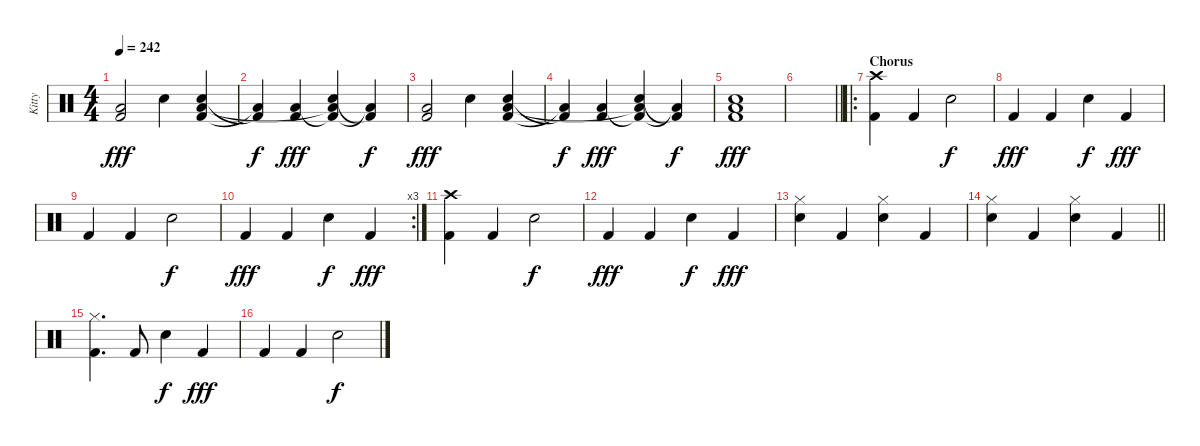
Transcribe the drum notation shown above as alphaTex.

\track ("Kitty" "Kitty") {instrument percussion}
\staff {score}
\articulation defaults
\ts (4 4)
\tempo 242
\clef neutral
\ks c
("Kick (hit) 2" "Low Floor Tom (hit)").2{dy fff} "Hand Clap (hit)".4 ("Hand Clap (hit)" "Kick (hit) 2" "Low Floor Tom (hit)").4 |
("Kick (hit) 2"{t} "Low Floor Tom (hit)"{t}).4{dy f} ("Kick (hit) 2" "Low Floor Tom (hit)").4{dy fff} ("Hand Clap (hit)" "Kick (hit) 2"{t} "Low Floor Tom (hit)"{t}).4 ("Kick (hit) 2"{t} "Low Floor Tom (hit)"{t}).4{dy f} |
("Kick (hit) 2" "Low Floor Tom (hit)").2{dy fff} "Hand Clap (hit)".4 ("Hand Clap (hit)" "Kick (hit) 2" "Low Floor Tom (hit)").4 |
("Kick (hit) 2"{t} "Low Floor Tom (hit)"{t}).4{dy f} ("Kick (hit) 2" "Low Floor Tom (hit)").4{dy fff} ("Hand Clap (hit)" "Kick (hit) 2"{t} "Low Floor Tom (hit)"{t}).4 ("Kick (hit) 2"{t} "Low Floor Tom (hit)"{t}).4{dy f} |
("Hand Clap (hit)" "Kick (hit) 2" "Low Floor Tom (hit)").1{dy fff} |
\barLineRight lightlight
|
\ro
\section ("" "Chorus")
("Crash high (hit)" "Kick (hit) 2").4{volume 16} "Kick (hit) 2".4 "Snare (hit) 2".2{dy f} |
"Kick (hit) 2".4{dy fff} "Kick (hit) 2".4 "Snare (hit) 2".4{dy f} "Kick (hit) 2".4{dy fff} |
"Kick (hit) 2".4 "Kick (hit) 2".4 "Snare (hit) 2".2{dy f} |
\rc 3 "Kick (hit) 2".4{dy fff} "Kick (hit) 2".4 "Snare (hit) 2".4{dy f} "Kick (hit) 2".4{dy fff}
|
("Crash high (hit)" "Kick (hit) 2").4 "Kick (hit) 2".4 "Snare (hit) 2".2{dy f} |
"Kick (hit) 2".4{dy fff} "Kick (hit) 2".4 "Snare (hit) 2".4{dy f} "Kick (hit) 2".4{dy fff} |
("Snare (hit) 2" "Hi-Hat (closed)").4 "Kick (hit) 2".4 ("Snare (hit) 2" "Hi-Hat (closed)").4 "Kick (hit) 2".4 |
\barLineRight lightlight
("Snare (hit) 2" "Hi-Hat (closed)").4 "Kick (hit) 2".4 ("Snare (hit) 2" "Hi-Hat (closed)").4 "Kick (hit) 2".4 |
("Hi-Hat (closed)" "Kick (hit) 2").4{d} "Kick (hit) 2".8 "Electric Snare (hit)".4{dy f} "Kick (hit) 2".4{dy fff} |
"Kick (hit) 2".4 "Kick (hit) 2".4 "Electric Snare (hit)".2{dy f}
